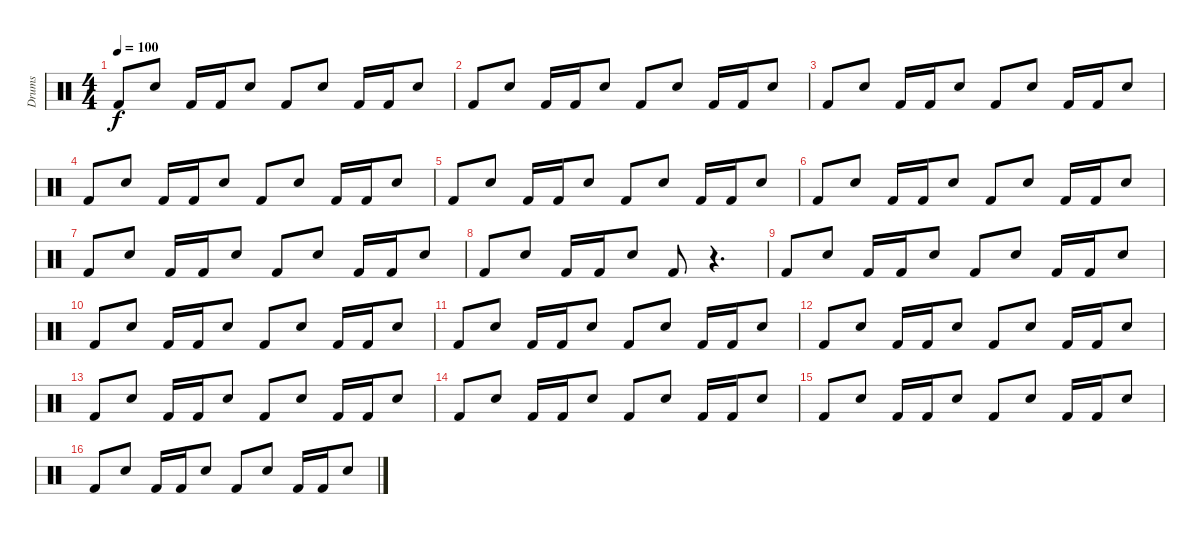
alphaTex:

\track ("Drums" "Drums") {instrument percussion}
\staff {score}
\articulation defaults
\ts (4 4)
\tempo 100
\clef neutral
\ks c "Kick (hit) 2".8{dy f} "Snare (hit) 2".8 "Kick (hit) 2".16 "Kick (hit) 2".16 "Snare (hit) 2".8 "Kick (hit) 2".8 "Snare (hit) 2".8 "Kick (hit) 2".16 "Kick (hit) 2".16 "Snare (hit) 2".8
|
"Kick (hit) 2".8 "Snare (hit) 2".8 "Kick (hit) 2".16 "Kick (hit) 2".16 "Snare (hit) 2".8 "Kick (hit) 2".8 "Snare (hit) 2".8 "Kick (hit) 2".16 "Kick (hit) 2".16 "Snare (hit) 2".8 |
"Kick (hit) 2".8 "Snare (hit) 2".8 "Kick (hit) 2".16 "Kick (hit) 2".16 "Snare (hit) 2".8 "Kick (hit) 2".8 "Snare (hit) 2".8 "Kick (hit) 2".16 "Kick (hit) 2".16 "Snare (hit) 2".8 |
"Kick (hit) 2".8 "Snare (hit) 2".8 "Kick (hit) 2".16 "Kick (hit) 2".16 "Snare (hit) 2".8 "Kick (hit) 2".8 "Snare (hit) 2".8 "Kick (hit) 2".16 "Kick (hit) 2".16 "Snare (hit) 2".8 |
"Kick (hit) 2".8 "Snare (hit) 2".8 "Kick (hit) 2".16 "Kick (hit) 2".16 "Snare (hit) 2".8 "Kick (hit) 2".8 "Snare (hit) 2".8 "Kick (hit) 2".16 "Kick (hit) 2".16 "Snare (hit) 2".8 |
"Kick (hit) 2".8 "Snare (hit) 2".8 "Kick (hit) 2".16 "Kick (hit) 2".16 "Snare (hit) 2".8 "Kick (hit) 2".8 "Snare (hit) 2".8 "Kick (hit) 2".16 "Kick (hit) 2".16 "Snare (hit) 2".8 |
"Kick (hit) 2".8 "Snare (hit) 2".8 "Kick (hit) 2".16 "Kick (hit) 2".16 "Snare (hit) 2".8 "Kick (hit) 2".8 "Snare (hit) 2".8 "Kick (hit) 2".16 "Kick (hit) 2".16 "Snare (hit) 2".8 |
"Kick (hit) 2".8 "Snare (hit) 2".8 "Kick (hit) 2".16 "Kick (hit) 2".16 "Snare (hit) 2".8 "Kick (hit) 2".8 r.4{d} |
"Kick (hit) 2".8 "Snare (hit) 2".8 "Kick (hit) 2".16 "Kick (hit) 2".16 "Snare (hit) 2".8 "Kick (hit) 2".8 "Snare (hit) 2".8 "Kick (hit) 2".16 "Kick (hit) 2".16 "Snare (hit) 2".8 |
"Kick (hit) 2".8 "Snare (hit) 2".8 "Kick (hit) 2".16 "Kick (hit) 2".16 "Snare (hit) 2".8 "Kick (hit) 2".8 "Snare (hit) 2".8 "Kick (hit) 2".16 "Kick (hit) 2".16 "Snare (hit) 2".8 |
"Kick (hit) 2".8 "Snare (hit) 2".8 "Kick (hit) 2".16 "Kick (hit) 2".16 "Snare (hit) 2".8 "Kick (hit) 2".8 "Snare (hit) 2".8 "Kick (hit) 2".16 "Kick (hit) 2".16 "Snare (hit) 2".8 |
"Kick (hit) 2".8 "Snare (hit) 2".8 "Kick (hit) 2".16 "Kick (hit) 2".16 "Snare (hit) 2".8 "Kick (hit) 2".8 "Snare (hit) 2".8 "Kick (hit) 2".16 "Kick (hit) 2".16 "Snare (hit) 2".8 |
"Kick (hit) 2".8 "Snare (hit) 2".8 "Kick (hit) 2".16 "Kick (hit) 2".16 "Snare (hit) 2".8 "Kick (hit) 2".8 "Snare (hit) 2".8 "Kick (hit) 2".16 "Kick (hit) 2".16 "Snare (hit) 2".8 |
"Kick (hit) 2".8 "Snare (hit) 2".8 "Kick (hit) 2".16 "Kick (hit) 2".16 "Snare (hit) 2".8 "Kick (hit) 2".8 "Snare (hit) 2".8 "Kick (hit) 2".16 "Kick (hit) 2".16 "Snare (hit) 2".8 |
"Kick (hit) 2".8 "Snare (hit) 2".8 "Kick (hit) 2".16 "Kick (hit) 2".16 "Snare (hit) 2".8 "Kick (hit) 2".8 "Snare (hit) 2".8 "Kick (hit) 2".16 "Kick (hit) 2".16 "Snare (hit) 2".8 |
"Kick (hit) 2".8 "Snare (hit) 2".8 "Kick (hit) 2".16 "Kick (hit) 2".16 "Snare (hit) 2".8 "Kick (hit) 2".8 "Snare (hit) 2".8 "Kick (hit) 2".16 "Kick (hit) 2".16 "Snare (hit) 2".8
